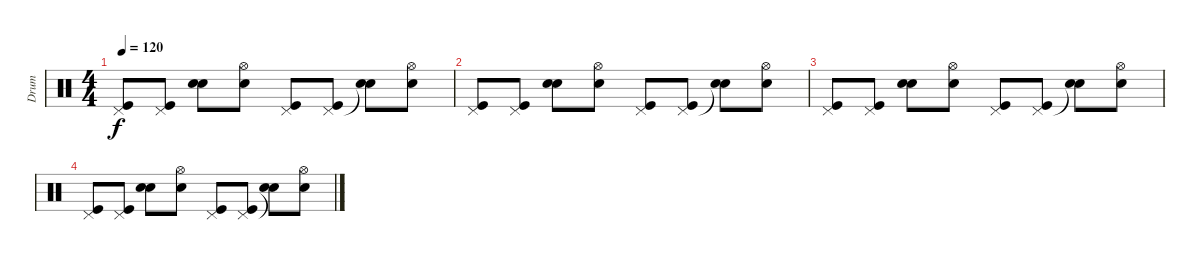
\track ("Drum" "Drum") {instrument percussion}
\staff {score}
\articulation defaults
\ts (4 4)
\tempo 120
\clef neutral
\ks c
("Pedal Hi-Hat (hit)" "Kick (hit)").8{dy f} ("Pedal Hi-Hat (hit)" "Kick (hit)").8 ("Snare (hit) 2" "Snare (hit) 2").8 ("Hi-Hat (open)" "Snare (hit) 2").8 ("Pedal Hi-Hat (hit)" "Kick (hit)").8 ("Pedal Hi-Hat (hit)" "Kick (hit)").8 ("Snare (hit) 2"{t} "Snare (hit) 2").8 ("Hi-Hat (open)" "Snare (hit) 2").8 |
("Pedal Hi-Hat (hit)" "Kick (hit)").8 ("Pedal Hi-Hat (hit)" "Kick (hit)").8 ("Snare (hit) 2" "Snare (hit) 2").8 ("Hi-Hat (open)" "Snare (hit) 2").8 ("Pedal Hi-Hat (hit)" "Kick (hit)").8 ("Pedal Hi-Hat (hit)" "Kick (hit)").8 ("Snare (hit) 2"{t} "Snare (hit) 2").8 ("Hi-Hat (open)" "Snare (hit) 2").8 |
("Pedal Hi-Hat (hit)" "Kick (hit)").8 ("Pedal Hi-Hat (hit)" "Kick (hit)").8 ("Snare (hit) 2" "Snare (hit) 2").8 ("Hi-Hat (open)" "Snare (hit) 2").8 ("Pedal Hi-Hat (hit)" "Kick (hit)").8 ("Pedal Hi-Hat (hit)" "Kick (hit)").8 ("Snare (hit) 2"{t} "Snare (hit) 2").8 ("Hi-Hat (open)" "Snare (hit) 2").8 |
("Pedal Hi-Hat (hit)" "Kick (hit)").8 ("Pedal Hi-Hat (hit)" "Kick (hit)").8 ("Snare (hit) 2" "Snare (hit) 2").8 ("Hi-Hat (open)" "Snare (hit) 2").8 ("Pedal Hi-Hat (hit)" "Kick (hit)").8 ("Pedal Hi-Hat (hit)" "Kick (hit)").8 ("Snare (hit) 2"{t} "Snare (hit) 2").8 ("Hi-Hat (open)" "Snare (hit) 2").8
